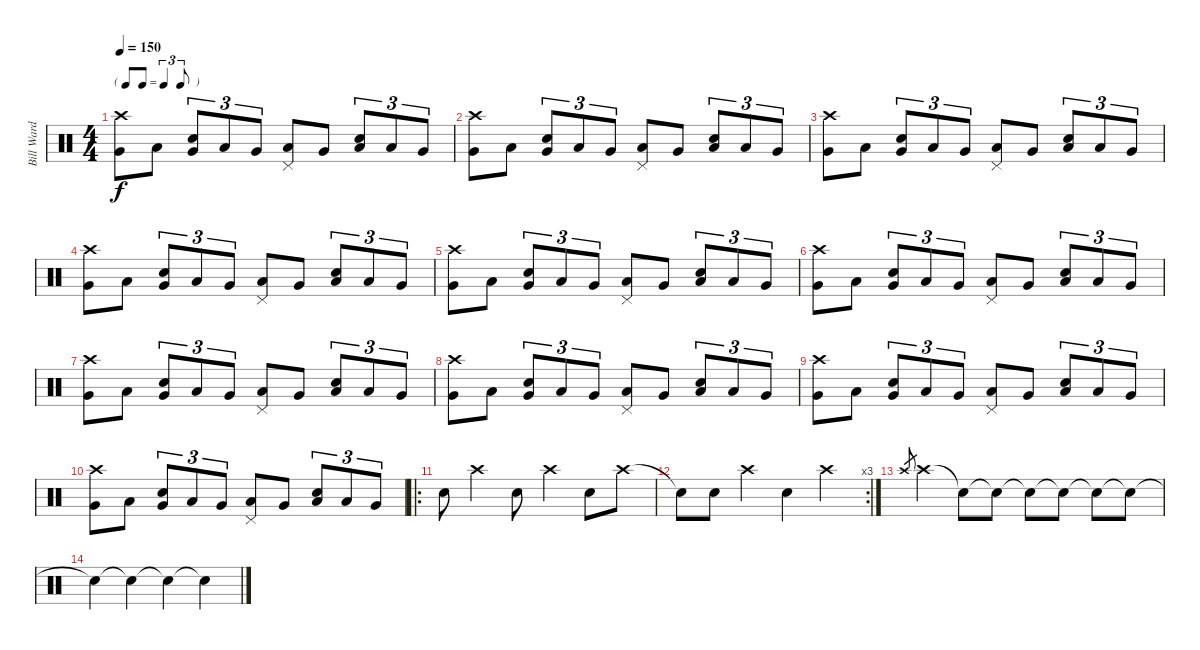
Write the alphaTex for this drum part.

\track ("Bill Ward" "Bill Ward") {instrument percussion}
\staff {score}
\articulation defaults
\ts (4 4)
\tf triplet8th
\tempo 150
\clef neutral
\ks c
("Crash high (hit)" "Very Low Tom (hit)").8{dy f} "Low Tom (hit)".8 ("Snare (hit) 2" "Very Low Tom (hit)").8{tu (3 2)} "Low Tom (hit)".8{tu (3 2)} "Very Low Tom (hit)".8{tu (3 2)} ("Pedal Hi-Hat (hit)" "Low Tom (hit)").8 "Very Low Tom (hit)".8 ("Snare (hit) 2" "Low Tom (hit)").8{tu (3 2)} "Low Tom (hit)".8{tu (3 2)} "Very Low Tom (hit)".8{tu (3 2)} |
("Crash high (hit)" "Very Low Tom (hit)").8 "Low Tom (hit)".8 ("Snare (hit) 2" "Very Low Tom (hit)").8{tu (3 2)} "Low Tom (hit)".8{tu (3 2)} "Very Low Tom (hit)".8{tu (3 2)} ("Pedal Hi-Hat (hit)" "Low Tom (hit)").8 "Very Low Tom (hit)".8 ("Snare (hit) 2" "Low Tom (hit)").8{tu (3 2)} "Low Tom (hit)".8{tu (3 2)} "Very Low Tom (hit)".8{tu (3 2)} |
("Crash high (hit)" "Very Low Tom (hit)").8 "Low Tom (hit)".8 ("Snare (hit) 2" "Very Low Tom (hit)").8{tu (3 2)} "Low Tom (hit)".8{tu (3 2)} "Very Low Tom (hit)".8{tu (3 2)} ("Pedal Hi-Hat (hit)" "Low Tom (hit)").8 "Very Low Tom (hit)".8 ("Snare (hit) 2" "Low Tom (hit)").8{tu (3 2)} "Low Tom (hit)".8{tu (3 2)} "Very Low Tom (hit)".8{tu (3 2)} |
("Crash high (hit)" "Very Low Tom (hit)").8 "Low Tom (hit)".8 ("Snare (hit) 2" "Very Low Tom (hit)").8{tu (3 2)} "Low Tom (hit)".8{tu (3 2)} "Very Low Tom (hit)".8{tu (3 2)} ("Pedal Hi-Hat (hit)" "Low Tom (hit)").8 "Very Low Tom (hit)".8 ("Snare (hit) 2" "Low Tom (hit)").8{tu (3 2)} "Low Tom (hit)".8{tu (3 2)} "Very Low Tom (hit)".8{tu (3 2)} |
("Crash high (hit)" "Very Low Tom (hit)").8 "Low Tom (hit)".8 ("Snare (hit) 2" "Very Low Tom (hit)").8{tu (3 2)} "Low Tom (hit)".8{tu (3 2)} "Very Low Tom (hit)".8{tu (3 2)} ("Pedal Hi-Hat (hit)" "Low Tom (hit)").8 "Very Low Tom (hit)".8 ("Snare (hit) 2" "Low Tom (hit)").8{tu (3 2)} "Low Tom (hit)".8{tu (3 2)} "Very Low Tom (hit)".8{tu (3 2)} |
("Crash high (hit)" "Very Low Tom (hit)").8 "Low Tom (hit)".8 ("Snare (hit) 2" "Very Low Tom (hit)").8{tu (3 2)} "Low Tom (hit)".8{tu (3 2)} "Very Low Tom (hit)".8{tu (3 2)} ("Pedal Hi-Hat (hit)" "Low Tom (hit)").8 "Very Low Tom (hit)".8 ("Snare (hit) 2" "Low Tom (hit)").8{tu (3 2)} "Low Tom (hit)".8{tu (3 2)} "Very Low Tom (hit)".8{tu (3 2)} |
("Crash high (hit)" "Very Low Tom (hit)").8 "Low Tom (hit)".8 ("Snare (hit) 2" "Very Low Tom (hit)").8{tu (3 2)} "Low Tom (hit)".8{tu (3 2)} "Very Low Tom (hit)".8{tu (3 2)} ("Pedal Hi-Hat (hit)" "Low Tom (hit)").8 "Very Low Tom (hit)".8 ("Snare (hit) 2" "Low Tom (hit)").8{tu (3 2)} "Low Tom (hit)".8{tu (3 2)} "Very Low Tom (hit)".8{tu (3 2)} |
("Crash high (hit)" "Very Low Tom (hit)").8 "Low Tom (hit)".8 ("Snare (hit) 2" "Very Low Tom (hit)").8{tu (3 2)} "Low Tom (hit)".8{tu (3 2)} "Very Low Tom (hit)".8{tu (3 2)} ("Pedal Hi-Hat (hit)" "Low Tom (hit)").8 "Very Low Tom (hit)".8 ("Snare (hit) 2" "Low Tom (hit)").8{tu (3 2)} "Low Tom (hit)".8{tu (3 2)} "Very Low Tom (hit)".8{tu (3 2)} |
("Crash high (hit)" "Very Low Tom (hit)").8 "Low Tom (hit)".8 ("Snare (hit) 2" "Very Low Tom (hit)").8{tu (3 2)} "Low Tom (hit)".8{tu (3 2)} "Very Low Tom (hit)".8{tu (3 2)} ("Pedal Hi-Hat (hit)" "Low Tom (hit)").8 "Very Low Tom (hit)".8 ("Snare (hit) 2" "Low Tom (hit)").8{tu (3 2)} "Low Tom (hit)".8{tu (3 2)} "Very Low Tom (hit)".8{tu (3 2)} |
("Crash high (hit)" "Very Low Tom (hit)").8 "Low Tom (hit)".8 ("Snare (hit) 2" "Very Low Tom (hit)").8{tu (3 2)} "Low Tom (hit)".8{tu (3 2)} "Very Low Tom (hit)".8{tu (3 2)} ("Pedal Hi-Hat (hit)" "Low Tom (hit)").8 "Very Low Tom (hit)".8 ("Snare (hit) 2" "Low Tom (hit)").8{tu (3 2)} "Low Tom (hit)".8{tu (3 2)} "Very Low Tom (hit)".8{tu (3 2)} |
\ro "Snare (hit) 2".8 "Crash high (hit)".4 "Snare (hit) 2".8 "Crash high (hit)".4 "Snare (hit) 2".8 "Crash high (hit)".8
|
\rc 3 "Snare (hit)"{t}.8 "Snare (hit) 2".8 "Crash high (hit)".4 "Snare (hit) 2".4 "Crash high (hit)".4
|
"Crash high (hit)".8{gr} "Crash high (hit)".4 "Snare (hit)"{t}.8 "Snare (hit)"{t}.8 "Snare (hit)"{t}.8 "Snare (hit)"{t}.8 "Snare (hit)"{t}.8 "Snare (hit)"{t}.8 |
"Snare (hit)"{t}.4 "Snare (hit)"{t}.4 "Snare (hit)"{t}.4 "Snare (hit)"{t}.4
